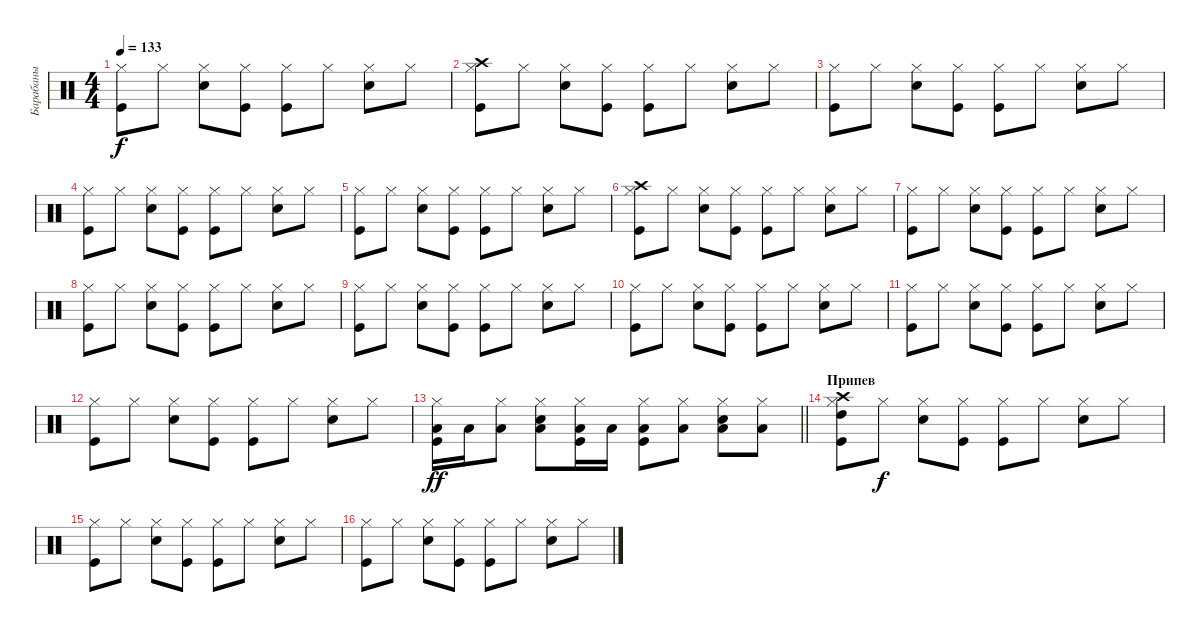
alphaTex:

\track ("Барабаны" "Барабаны") {instrument percussion}
\staff {score}
\articulation defaults
\ts (4 4)
\tempo 133
\clef neutral
\ks c
("Kick (hit)" "Hi-Hat (closed)").8{dy f} "Hi-Hat (closed)".8 ("Snare (hit) 2" "Hi-Hat (closed)").8 ("Kick (hit)" "Hi-Hat (closed)").8 ("Kick (hit)" "Hi-Hat (closed)").8 "Hi-Hat (closed)".8 ("Snare (hit) 2" "Hi-Hat (closed)").8 "Hi-Hat (closed)".8 |
("Kick (hit)" "Hi-Hat (closed)" "Crash high (hit)").8 "Hi-Hat (closed)".8 ("Snare (hit) 2" "Hi-Hat (closed)").8 ("Kick (hit)" "Hi-Hat (closed)").8 ("Kick (hit)" "Hi-Hat (closed)").8 "Hi-Hat (closed)".8 ("Snare (hit) 2" "Hi-Hat (closed)").8 "Hi-Hat (closed)".8 |
("Kick (hit)" "Hi-Hat (closed)").8 "Hi-Hat (closed)".8 ("Snare (hit) 2" "Hi-Hat (closed)").8 ("Kick (hit)" "Hi-Hat (closed)").8 ("Kick (hit)" "Hi-Hat (closed)").8 "Hi-Hat (closed)".8 ("Snare (hit) 2" "Hi-Hat (closed)").8 "Hi-Hat (closed)".8 |
("Kick (hit)" "Hi-Hat (closed)").8 "Hi-Hat (closed)".8 ("Snare (hit) 2" "Hi-Hat (closed)").8 ("Kick (hit)" "Hi-Hat (closed)").8 ("Kick (hit)" "Hi-Hat (closed)").8 "Hi-Hat (closed)".8 ("Snare (hit) 2" "Hi-Hat (closed)").8 "Hi-Hat (closed)".8 |
("Kick (hit)" "Hi-Hat (closed)").8 "Hi-Hat (closed)".8 ("Snare (hit) 2" "Hi-Hat (closed)").8 ("Kick (hit)" "Hi-Hat (closed)").8 ("Kick (hit)" "Hi-Hat (closed)").8 "Hi-Hat (closed)".8 ("Snare (hit) 2" "Hi-Hat (closed)").8 "Hi-Hat (closed)".8 |
("Kick (hit)" "Hi-Hat (closed)" "Crash high (hit)").8 "Hi-Hat (closed)".8 ("Snare (hit) 2" "Hi-Hat (closed)").8 ("Kick (hit)" "Hi-Hat (closed)").8 ("Kick (hit)" "Hi-Hat (closed)").8 "Hi-Hat (closed)".8 ("Snare (hit) 2" "Hi-Hat (closed)").8 "Hi-Hat (closed)".8 |
("Kick (hit)" "Hi-Hat (closed)").8 "Hi-Hat (closed)".8 ("Snare (hit) 2" "Hi-Hat (closed)").8 ("Kick (hit)" "Hi-Hat (closed)").8 ("Kick (hit)" "Hi-Hat (closed)").8 "Hi-Hat (closed)".8 ("Snare (hit) 2" "Hi-Hat (closed)").8 "Hi-Hat (closed)".8 |
("Kick (hit)" "Hi-Hat (closed)").8 "Hi-Hat (closed)".8 ("Snare (hit) 2" "Hi-Hat (closed)").8 ("Kick (hit)" "Hi-Hat (closed)").8 ("Kick (hit)" "Hi-Hat (closed)").8 "Hi-Hat (closed)".8 ("Snare (hit) 2" "Hi-Hat (closed)").8 "Hi-Hat (closed)".8 |
("Kick (hit)" "Hi-Hat (closed)").8 "Hi-Hat (closed)".8 ("Snare (hit) 2" "Hi-Hat (closed)").8 ("Kick (hit)" "Hi-Hat (closed)").8 ("Kick (hit)" "Hi-Hat (closed)").8 "Hi-Hat (closed)".8 ("Snare (hit) 2" "Hi-Hat (closed)").8 "Hi-Hat (closed)".8 |
("Kick (hit)" "Hi-Hat (closed)").8 "Hi-Hat (closed)".8 ("Snare (hit) 2" "Hi-Hat (closed)").8 ("Kick (hit)" "Hi-Hat (closed)").8 ("Kick (hit)" "Hi-Hat (closed)").8 "Hi-Hat (closed)".8 ("Snare (hit) 2" "Hi-Hat (closed)").8 "Hi-Hat (closed)".8 |
("Kick (hit)" "Hi-Hat (closed)").8 "Hi-Hat (closed)".8 ("Snare (hit) 2" "Hi-Hat (closed)").8 ("Kick (hit)" "Hi-Hat (closed)").8 ("Kick (hit)" "Hi-Hat (closed)").8 "Hi-Hat (closed)".8 ("Snare (hit) 2" "Hi-Hat (closed)").8 "Hi-Hat (closed)".8 |
("Kick (hit)" "Hi-Hat (closed)").8 "Hi-Hat (closed)".8 ("Snare (hit) 2" "Hi-Hat (closed)").8 ("Kick (hit)" "Hi-Hat (closed)").8 ("Kick (hit)" "Hi-Hat (closed)").8 "Hi-Hat (closed)".8 ("Snare (hit) 2" "Hi-Hat (closed)").8 "Hi-Hat (closed)".8 |
\barLineRight lightlight
("Kick (hit)" "Hi-Hat (closed)" "Low Tom (hit)").16{dy ff} "Low Tom (hit)".16 ("Hi-Hat (closed)" "Low Tom (hit)").8 ("Snare (hit) 2" "Hi-Hat (closed)" "Low Floor Tom (hit)").8 ("Kick (hit)" "Hi-Hat (closed)" "Low Tom (hit)").16 "Low Tom (hit)".16 ("Kick (hit)" "Hi-Hat (closed)" "Low Tom (hit)").8 ("Hi-Hat (closed)" "Low Tom (hit)").8 ("Snare (hit) 2" "Hi-Hat (closed)" "Low Floor Tom (hit)").8 ("Hi-Hat (closed)" "Low Tom (hit)").8 |
\section ("" "Припев")
("Kick (hit)" "Hi-Hat (closed)" "Crash high (hit)" "High Tom (hit)").8 "Hi-Hat (closed)".8{dy f} ("Snare (hit) 2" "Hi-Hat (closed)").8 ("Kick (hit)" "Hi-Hat (closed)").8 ("Kick (hit)" "Hi-Hat (closed)").8 "Hi-Hat (closed)".8 ("Snare (hit) 2" "Hi-Hat (closed)").8 "Hi-Hat (closed)".8 |
("Kick (hit)" "Hi-Hat (closed)").8 "Hi-Hat (closed)".8 ("Snare (hit) 2" "Hi-Hat (closed)").8 ("Kick (hit)" "Hi-Hat (closed)").8 ("Kick (hit)" "Hi-Hat (closed)").8 "Hi-Hat (closed)".8 ("Snare (hit) 2" "Hi-Hat (closed)").8 "Hi-Hat (closed)".8 |
("Kick (hit)" "Hi-Hat (closed)").8 "Hi-Hat (closed)".8 ("Snare (hit) 2" "Hi-Hat (closed)").8 ("Kick (hit)" "Hi-Hat (closed)").8 ("Kick (hit)" "Hi-Hat (closed)").8 "Hi-Hat (closed)".8 ("Snare (hit) 2" "Hi-Hat (closed)").8 "Hi-Hat (closed)".8
